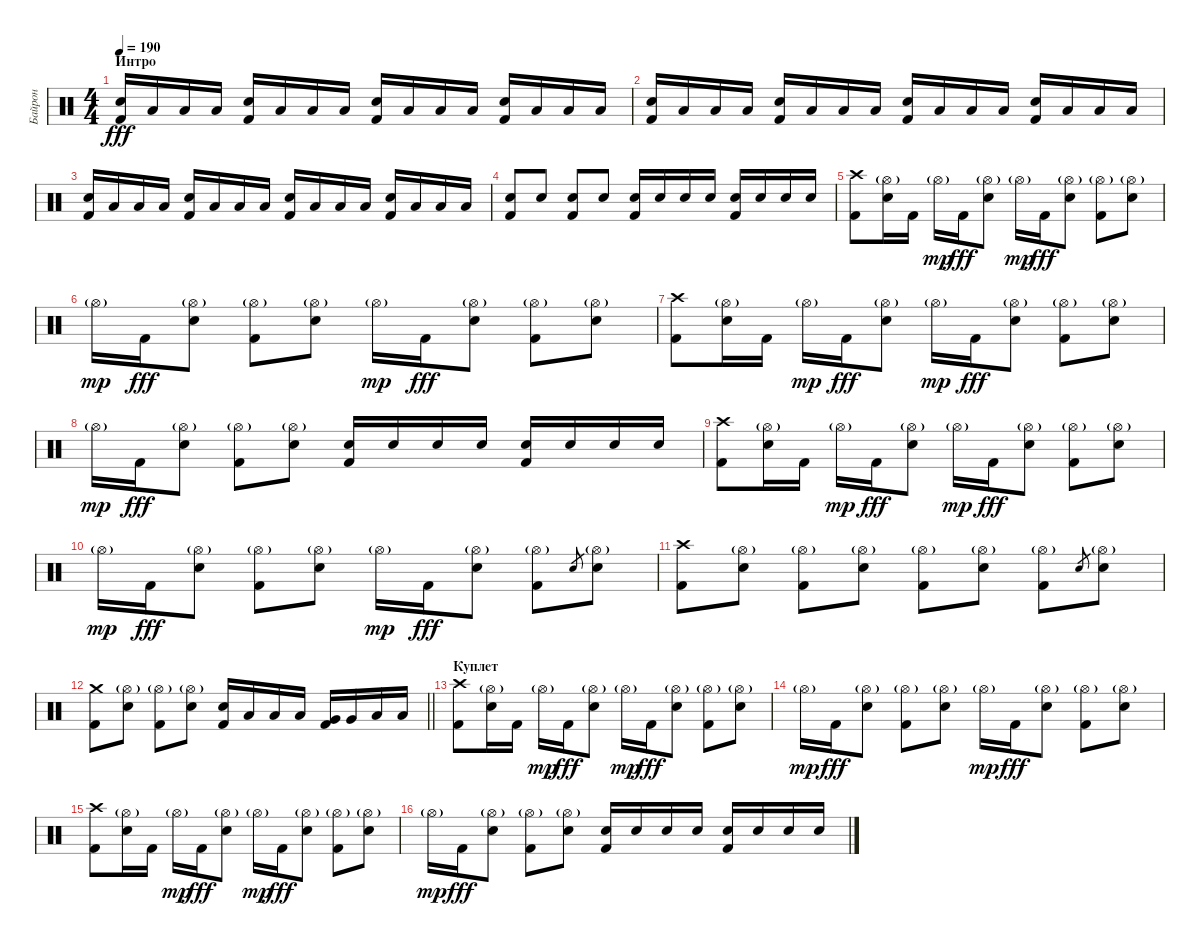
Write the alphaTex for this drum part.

\track ("Байрон" "Байрон") {instrument percussion}
\staff {score}
\articulation defaults
\ts (4 4)
\section ("" "Интро")
\tempo 190
\clef neutral
\ks c
("Electric Snare (hit)" "Kick (hit) 2").16{dy fff} "Low Tom (hit)".16 "Low Tom (hit)".16 "Low Tom (hit)".16 ("Electric Snare (hit)" "Kick (hit) 2").16 "Low Tom (hit)".16 "Low Tom (hit)".16 "Low Tom (hit)".16 ("Electric Snare (hit)" "Kick (hit) 2").16 "Low Tom (hit)".16 "Low Tom (hit)".16 "Low Tom (hit)".16 ("Electric Snare (hit)" "Kick (hit) 2").16 "Low Tom (hit)".16 "Low Tom (hit)".16 "Low Tom (hit)".16 |
("Electric Snare (hit)" "Kick (hit) 2").16 "Low Tom (hit)".16 "Low Tom (hit)".16 "Low Tom (hit)".16 ("Electric Snare (hit)" "Kick (hit) 2").16 "Low Tom (hit)".16 "Low Tom (hit)".16 "Low Tom (hit)".16 ("Electric Snare (hit)" "Kick (hit) 2").16 "Low Tom (hit)".16 "Low Tom (hit)".16 "Low Tom (hit)".16 ("Electric Snare (hit)" "Kick (hit) 2").16 "Low Tom (hit)".16 "Low Tom (hit)".16 "Low Tom (hit)".16 |
("Electric Snare (hit)" "Kick (hit) 2").16 "Low Tom (hit)".16 "Low Tom (hit)".16 "Low Tom (hit)".16 ("Electric Snare (hit)" "Kick (hit) 2").16 "Low Tom (hit)".16 "Low Tom (hit)".16 "Low Tom (hit)".16 ("Electric Snare (hit)" "Kick (hit) 2").16 "Low Tom (hit)".16 "Low Tom (hit)".16 "Low Tom (hit)".16 ("Electric Snare (hit)" "Kick (hit) 2").16 "Low Tom (hit)".16 "Low Tom (hit)".16 "Low Tom (hit)".16 |
("Electric Snare (hit)" "Kick (hit) 2").8 "Electric Snare (hit)".8 ("Electric Snare (hit)" "Kick (hit) 2").8 "Electric Snare (hit)".8 ("Electric Snare (hit)" "Kick (hit) 2").16 "Electric Snare (hit)".16 "Electric Snare (hit)".16 "Electric Snare (hit)".16 ("Electric Snare (hit)" "Kick (hit) 2").16 "Electric Snare (hit)".16 "Electric Snare (hit)".16 "Electric Snare (hit)".16 |
("Crash high (hit)" "Kick (hit) 2").8 ("Hi-Hat (open)"{g} "Electric Snare (hit)").16 "Kick (hit) 2".16 "Hi-Hat (open)"{g}.16{dy mp} "Kick (hit) 2".16{dy fff} ("Hi-Hat (open)"{g} "Electric Snare (hit)").8 "Hi-Hat (open)"{g}.16{dy mp} "Kick (hit) 2".16{dy fff} ("Hi-Hat (open)"{g} "Electric Snare (hit)").8 ("Hi-Hat (open)"{g} "Kick (hit) 2").8 ("Hi-Hat (open)"{g} "Electric Snare (hit)").8 |
"Hi-Hat (open)"{g}.16{dy mp} "Kick (hit) 2".16{dy fff} ("Hi-Hat (open)"{g} "Electric Snare (hit)").8 ("Hi-Hat (open)"{g} "Kick (hit) 2").8 ("Hi-Hat (open)"{g} "Electric Snare (hit)").8 "Hi-Hat (open)"{g}.16{dy mp} "Kick (hit) 2".16{dy fff} ("Hi-Hat (open)"{g} "Electric Snare (hit)").8 ("Hi-Hat (open)"{g} "Kick (hit) 2").8 ("Hi-Hat (open)"{g} "Electric Snare (hit)").8 |
("Crash high (hit)" "Kick (hit) 2").8 ("Hi-Hat (open)"{g} "Electric Snare (hit)").16 "Kick (hit) 2".16 "Hi-Hat (open)"{g}.16{dy mp} "Kick (hit) 2".16{dy fff} ("Hi-Hat (open)"{g} "Electric Snare (hit)").8 "Hi-Hat (open)"{g}.16{dy mp} "Kick (hit) 2".16{dy fff} ("Hi-Hat (open)"{g} "Electric Snare (hit)").8 ("Hi-Hat (open)"{g} "Kick (hit) 2").8 ("Hi-Hat (open)"{g} "Electric Snare (hit)").8 |
"Hi-Hat (open)"{g}.16{dy mp} "Kick (hit) 2".16{dy fff} ("Hi-Hat (open)"{g} "Electric Snare (hit)").8 ("Hi-Hat (open)"{g} "Kick (hit) 2").8 ("Hi-Hat (open)"{g} "Electric Snare (hit)").8 ("Electric Snare (hit)" "Kick (hit) 2").16 "Electric Snare (hit)".16 "Electric Snare (hit)".16 "Electric Snare (hit)".16 ("Electric Snare (hit)" "Kick (hit) 2").16 "Electric Snare (hit)".16 "Electric Snare (hit)".16 "Electric Snare (hit)".16 |
("Crash high (hit)" "Kick (hit) 2").8 ("Hi-Hat (open)"{g} "Electric Snare (hit)").16 "Kick (hit) 2".16 "Hi-Hat (open)"{g}.16{dy mp} "Kick (hit) 2".16{dy fff} ("Hi-Hat (open)"{g} "Electric Snare (hit)").8 "Hi-Hat (open)"{g}.16{dy mp} "Kick (hit) 2".16{dy fff} ("Hi-Hat (open)"{g} "Electric Snare (hit)").8 ("Hi-Hat (open)"{g} "Kick (hit) 2").8 ("Hi-Hat (open)"{g} "Electric Snare (hit)").8 |
"Hi-Hat (open)"{g}.16{dy mp} "Kick (hit) 2".16{dy fff} ("Hi-Hat (open)"{g} "Electric Snare (hit)").8 ("Hi-Hat (open)"{g} "Kick (hit) 2").8 ("Hi-Hat (open)"{g} "Electric Snare (hit)").8 "Hi-Hat (open)"{g}.16{dy mp} "Kick (hit) 2".16{dy fff} ("Hi-Hat (open)"{g} "Electric Snare (hit)").8 ("Hi-Hat (open)"{g} "Kick (hit) 2").8 "Electric Snare (hit)".8{gr} ("Hi-Hat (open)"{g} "Electric Snare (hit)").8 |
("Crash high (hit)" "Kick (hit) 2").8 ("Hi-Hat (open)"{g} "Electric Snare (hit)").8 ("Hi-Hat (open)"{g} "Kick (hit) 2").8 ("Hi-Hat (open)"{g} "Electric Snare (hit)").8 ("Hi-Hat (open)"{g} "Kick (hit) 2").8 ("Hi-Hat (open)"{g} "Electric Snare (hit)").8 ("Hi-Hat (open)"{g} "Kick (hit) 2").8 "Electric Snare (hit)".8{gr} ("Hi-Hat (open)"{g} "Electric Snare (hit)").8 |
\barLineRight lightlight
("Crash medium (hit)" "Kick (hit) 2").8 ("Hi-Hat (open)"{g} "Electric Snare (hit)").8 ("Hi-Hat (open)"{g} "Kick (hit) 2").8 ("Hi-Hat (open)"{g} "Electric Snare (hit)").8 ("Electric Snare (hit)" "Kick (hit) 2").16 "Low Tom (hit)".16 "Low Tom (hit)".16 "Low Tom (hit)".16 ("Very Low Tom (hit)" "Kick (hit) 2").16 "Very Low Tom (hit)".16 "Low Floor Tom (hit)".16 "Low Floor Tom (hit)".16 |
\section ("" "Куплет")
("Crash high (hit)" "Kick (hit) 2").8 ("Hi-Hat (open)"{g} "Electric Snare (hit)").16 "Kick (hit) 2".16 "Hi-Hat (open)"{g}.16{dy mp} "Kick (hit) 2".16{dy fff} ("Hi-Hat (open)"{g} "Electric Snare (hit)").8 "Hi-Hat (open)"{g}.16{dy mp} "Kick (hit) 2".16{dy fff} ("Hi-Hat (open)"{g} "Electric Snare (hit)").8 ("Hi-Hat (open)"{g} "Kick (hit) 2").8 ("Hi-Hat (open)"{g} "Electric Snare (hit)").8 |
"Hi-Hat (open)"{g}.16{dy mp} "Kick (hit) 2".16{dy fff} ("Hi-Hat (open)"{g} "Electric Snare (hit)").8 ("Hi-Hat (open)"{g} "Kick (hit) 2").8 ("Hi-Hat (open)"{g} "Electric Snare (hit)").8 "Hi-Hat (open)"{g}.16{dy mp} "Kick (hit) 2".16{dy fff} ("Hi-Hat (open)"{g} "Electric Snare (hit)").8 ("Hi-Hat (open)"{g} "Kick (hit) 2").8 ("Hi-Hat (open)"{g} "Electric Snare (hit)").8 |
("Crash high (hit)" "Kick (hit) 2").8 ("Hi-Hat (open)"{g} "Electric Snare (hit)").16 "Kick (hit) 2".16 "Hi-Hat (open)"{g}.16{dy mp} "Kick (hit) 2".16{dy fff} ("Hi-Hat (open)"{g} "Electric Snare (hit)").8 "Hi-Hat (open)"{g}.16{dy mp} "Kick (hit) 2".16{dy fff} ("Hi-Hat (open)"{g} "Electric Snare (hit)").8 ("Hi-Hat (open)"{g} "Kick (hit) 2").8 ("Hi-Hat (open)"{g} "Electric Snare (hit)").8 |
"Hi-Hat (open)"{g}.16{dy mp} "Kick (hit) 2".16{dy fff} ("Hi-Hat (open)"{g} "Electric Snare (hit)").8 ("Hi-Hat (open)"{g} "Kick (hit) 2").8 ("Hi-Hat (open)"{g} "Electric Snare (hit)").8 ("Electric Snare (hit)" "Kick (hit) 2").16 "Electric Snare (hit)".16 "Electric Snare (hit)".16 "Electric Snare (hit)".16 ("Electric Snare (hit)" "Kick (hit) 2").16 "Electric Snare (hit)".16 "Electric Snare (hit)".16 "Electric Snare (hit)".16
